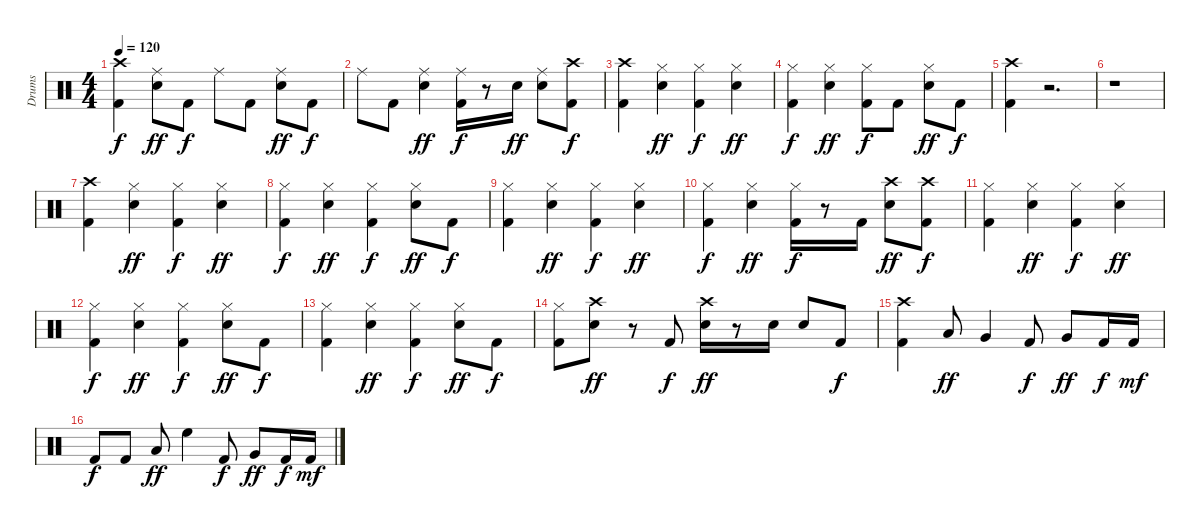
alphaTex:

\track ("Drums" "Drums") {instrument percussion}
\staff {score}
\articulation defaults
\ts (4 4)
\tempo 120
\clef neutral
\ks c
("Crash high (hit)" "Kick (hit) 2").4{dy f} ("Snare (hit) 2" "Ride (middle)").8{dy ff} "Kick (hit) 2".8{dy f} "Ride (middle)".8 "Kick (hit) 2".8 ("Snare (hit) 2" "Ride (middle)").8{dy ff} "Kick (hit) 2".8{dy f} |
"Ride (middle)".8 "Kick (hit) 2".8 ("Snare (hit) 2" "Ride (middle)").4{dy ff} ("Ride (middle)" "Kick (hit) 2").16{dy f} r.8 "Snare (hit) 2".16{dy ff} ("Ride (middle)" "Snare (hit) 2").8 ("Crash high (hit)" "Kick (hit) 2").8{dy f} |
("Crash high (hit)" "Kick (hit) 2").4 ("Snare (hit) 2" "Hi-Hat (closed)").4{dy ff} ("Hi-Hat (closed)" "Kick (hit) 2").4{dy f} ("Snare (hit) 2" "Hi-Hat (closed)").4{dy ff} |
("Hi-Hat (closed)" "Kick (hit) 2").4{dy f} ("Hi-Hat (closed)" "Snare (hit) 2").4{dy ff} ("Hi-Hat (closed)" "Kick (hit) 2").8{dy f} "Kick (hit) 2".8 ("Hi-Hat (closed)" "Snare (hit) 2").8{dy ff} "Kick (hit) 2".8{dy f} |
("Crash high (hit)" "Kick (hit) 2").4 r.2{d} |
r.1 |
("Crash high (hit)" "Kick (hit) 2").4 ("Snare (hit) 2" "Hi-Hat (closed)").4{dy ff} ("Hi-Hat (closed)" "Kick (hit) 2").4{dy f} ("Snare (hit) 2" "Hi-Hat (closed)").4{dy ff} |
("Hi-Hat (closed)" "Kick (hit) 2").4{dy f} ("Snare (hit) 2" "Hi-Hat (closed)").4{dy ff} ("Hi-Hat (closed)" "Kick (hit) 2").4{dy f} ("Snare (hit) 2" "Hi-Hat (closed)").8{dy ff} "Kick (hit) 2".8{dy f} |
("Hi-Hat (closed)" "Kick (hit) 2").4 ("Snare (hit) 2" "Hi-Hat (closed)").4{dy ff} ("Hi-Hat (closed)" "Kick (hit) 2").4{dy f} ("Snare (hit) 2" "Hi-Hat (closed)").4{dy ff} |
("Hi-Hat (closed)" "Kick (hit) 2").4{dy f} ("Snare (hit) 2" "Hi-Hat (closed)").4{dy ff} ("Hi-Hat (closed)" "Kick (hit) 2").16{dy f} r.8 "Kick (hit) 2".16 ("Snare (hit) 2" "Crash high (hit)").8{dy ff} ("Crash high (hit)" "Kick (hit) 2").8{dy f} |
("Hi-Hat (closed)" "Kick (hit) 2").4 ("Snare (hit) 2" "Hi-Hat (closed)").4{dy ff} ("Hi-Hat (closed)" "Kick (hit) 2").4{dy f} ("Snare (hit) 2" "Hi-Hat (closed)").4{dy ff} |
("Hi-Hat (closed)" "Kick (hit) 2").4{dy f} ("Snare (hit) 2" "Hi-Hat (closed)").4{dy ff} ("Hi-Hat (closed)" "Kick (hit) 2").4{dy f} ("Snare (hit) 2" "Hi-Hat (closed)").8{dy ff} "Kick (hit) 2".8{dy f} |
("Hi-Hat (closed)" "Kick (hit) 2").4 ("Snare (hit) 2" "Hi-Hat (closed)").4{dy ff} ("Hi-Hat (closed)" "Kick (hit) 2").4{dy f} ("Snare (hit) 2" "Hi-Hat (closed)").8{dy ff} "Kick (hit) 2".8{dy f} |
("Hi-Hat (closed)" "Kick (hit) 2").8 ("Snare (hit) 2" "Crash high (hit)").8{dy ff} r.8 "Kick (hit) 2".8{dy f} ("Snare (hit) 2" "Crash high (hit)").16{dy ff} r.8 "Snare (hit) 2".16 "Snare (hit) 2".8 "Kick (hit) 2".8{dy f} |
("Crash high (hit)" "Kick (hit) 2").4 "Low Floor Tom (hit)".8{dy ff} "Very Low Tom (hit)".4 "Kick (hit) 2".8{dy f} "Very Low Tom (hit)".8{dy ff} "Kick (hit) 2".16{dy f} "Kick (hit) 2".16{dy mf} |
"Kick (hit) 2".8{dy f} "Kick (hit) 2".8 "Low Floor Tom (hit)".8{dy ff} "High Floor Tom (hit)".4 "Kick (hit) 2".8{dy f} "Very Low Tom (hit)".8{dy ff} "Kick (hit) 2".16{dy f} "Kick (hit) 2".16{dy mf}
